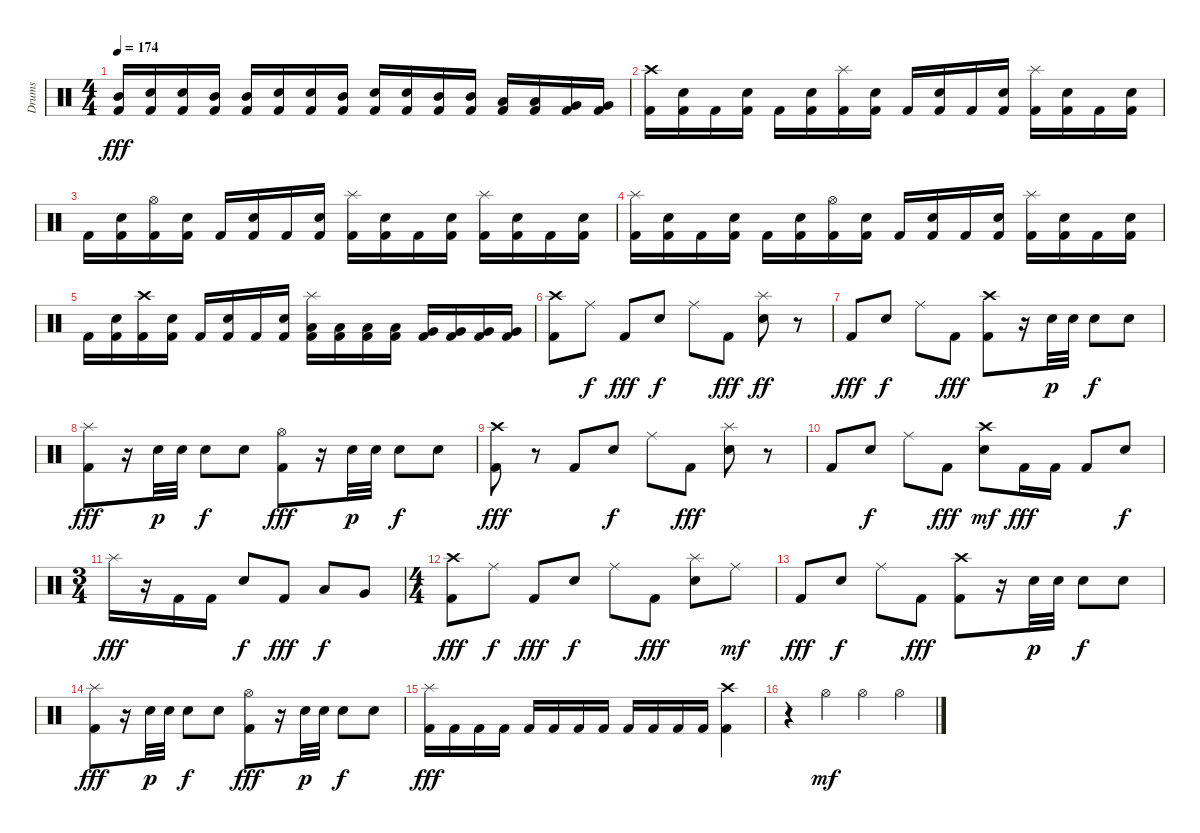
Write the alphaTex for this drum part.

\track ("Drums" "Drums") {instrument percussion}
\staff {score}
\articulation defaults
\ts (4 4)
\tempo 174
\clef neutral
\ks c
("Mid Tom (hit)" "Kick (hit) 2").16{dy fff} ("Snare (hit) 2" "Kick (hit) 2").16 ("Snare (hit) 2" "Kick (hit) 2").16 ("Mid Tom (hit)" "Kick (hit) 2").16 ("Mid Tom (hit)" "Kick (hit) 2").16 ("Snare (hit) 2" "Kick (hit) 2").16 ("Snare (hit) 2" "Kick (hit) 2").16 ("Mid Tom (hit)" "Kick (hit) 2").16 ("Snare (hit) 2" "Kick (hit) 2").16 ("Snare (hit) 2" "Kick (hit) 2").16 ("Mid Tom (hit)" "Kick (hit) 2").16 ("Mid Tom (hit)" "Kick (hit) 2").16 ("Low Tom (hit)" "Kick (hit) 2").16 ("Low Tom (hit)" "Kick (hit) 2").16 ("Very Low Tom (hit)" "Kick (hit) 2").16 ("Very Low Tom (hit)" "Kick (hit) 2").16 |
("Crash high (hit)" "Kick (hit) 2").16 ("Snare (hit) 2" "Kick (hit) 2").16 "Kick (hit) 2".16 ("Snare (hit) 2" "Kick (hit) 2").16 "Kick (hit) 2".16 ("Snare (hit) 2" "Kick (hit) 2").16 ("Splash (hit)" "Kick (hit) 2").16 ("Snare (hit) 2" "Kick (hit) 2").16 "Kick (hit) 2".16 ("Snare (hit) 2" "Kick (hit) 2").16 "Kick (hit) 2".16 ("Snare (hit) 2" "Kick (hit) 2").16 ("Splash (hit)" "Kick (hit) 2").16 ("Snare (hit) 2" "Kick (hit) 2").16 "Kick (hit) 2".16 ("Snare (hit) 2" "Kick (hit) 2").16 |
"Kick (hit) 2".16 ("Snare (hit) 2" "Kick (hit) 2").16 ("Hi-Hat (open)" "Kick (hit) 2").16 ("Snare (hit) 2" "Kick (hit) 2").16 "Kick (hit) 2".16 ("Snare (hit) 2" "Kick (hit) 2").16 "Kick (hit) 2".16 ("Snare (hit) 2" "Kick (hit) 2").16 ("Splash (hit)" "Kick (hit) 2").16 ("Snare (hit) 2" "Kick (hit) 2").16 "Kick (hit) 2".16 ("Snare (hit) 2" "Kick (hit) 2").16 ("Splash (hit)" "Kick (hit) 2").16 ("Snare (hit) 2" "Kick (hit) 2").16 "Kick (hit) 2".16 ("Snare (hit) 2" "Kick (hit) 2").16 |
("Splash (hit)" "Kick (hit) 2").16 ("Snare (hit) 2" "Kick (hit) 2").16 "Kick (hit) 2".16 ("Snare (hit) 2" "Kick (hit) 2").16 "Kick (hit) 2".16 ("Snare (hit) 2" "Kick (hit) 2").16 ("Hi-Hat (open)" "Kick (hit) 2").16 ("Snare (hit) 2" "Kick (hit) 2").16 "Kick (hit) 2".16 ("Snare (hit) 2" "Kick (hit) 2").16 "Kick (hit) 2".16 ("Snare (hit) 2" "Kick (hit) 2").16 ("Splash (hit)" "Kick (hit) 2").16 ("Snare (hit) 2" "Kick (hit) 2").16 "Kick (hit) 2".16 ("Snare (hit) 2" "Kick (hit) 2").16 |
"Kick (hit) 2".16 ("Snare (hit) 2" "Kick (hit) 2").16 ("Crash high (hit)" "Kick (hit) 2").16 ("Snare (hit) 2" "Kick (hit) 2").16 "Kick (hit) 2".16 ("Snare (hit) 2" "Kick (hit) 2").16 "Kick (hit) 2".16 ("Snare (hit) 2" "Kick (hit) 2").16 ("Splash (hit)" "Low Tom (hit)" "Kick (hit) 2").16 ("Low Tom (hit)" "Kick (hit) 2").16 ("Low Tom (hit)" "Kick (hit) 2").16 ("Low Tom (hit)" "Kick (hit) 2").16 ("Very Low Tom (hit)" "Kick (hit) 2").16 ("Very Low Tom (hit)" "Kick (hit) 2").16 ("Very Low Tom (hit)" "Kick (hit) 2").16 ("Very Low Tom (hit)" "Kick (hit) 2").16 |
("Crash high (hit)" "Kick (hit) 2").8 "Ride (middle)".8{dy f} "Kick (hit) 2".8{dy fff} "Snare (hit) 2".8{dy f} "Ride (middle)".8 "Kick (hit) 2".8{dy fff} ("Splash (hit)" "Snare (hit) 2").8{dy ff} r.8 |
"Kick (hit) 2".8{dy fff} "Snare (hit) 2".8{dy f} "Ride (middle)".8 "Kick (hit) 2".8{dy fff} ("Crash high (hit)" "Kick (hit) 2").8 r.16 "Snare (hit) 2".32{dy p} "Snare (hit) 2".32 "Snare (hit) 2".8{dy f} "Snare (hit) 2".8 |
("Splash (hit)" "Kick (hit) 2").8{dy fff} r.16 "Snare (hit) 2".32{dy p} "Snare (hit) 2".32 "Snare (hit) 2".8{dy f} "Snare (hit) 2".8 ("Hi-Hat (open)" "Kick (hit) 2").8{dy fff} r.16 "Snare (hit) 2".32{dy p} "Snare (hit) 2".32 "Snare (hit) 2".8{dy f} "Snare (hit) 2".8 |
("Crash high (hit)" "Kick (hit) 2").8{dy fff} r.8 "Kick (hit) 2".8 "Snare (hit) 2".8{dy f} "Ride (middle)".8 "Kick (hit) 2".8{dy fff} ("Splash (hit)" "Snare (hit) 2").8 r.8 |
"Kick (hit) 2".8 "Snare (hit) 2".8{dy f} "Ride (middle)".8 "Kick (hit) 2".8{dy fff} ("Crash high (hit)" "Snare (hit) 2").8{dy mf} "Kick (hit) 2".16{dy fff} "Kick (hit) 2".16 "Kick (hit) 2".8 "Snare (hit) 2".8{dy f} |
\ts (3 4)
"Splash (hit)".16{dy fff} r.16 "Kick (hit) 2".16 "Kick (hit) 2".16 "Snare (hit) 2".8{dy f} "Kick (hit) 2".8{dy fff} "Low Tom (hit)".8{dy f} "Very Low Tom (hit)".8 |
\ts (4 4)
("Crash high (hit)" "Kick (hit) 2").8{dy fff} "Ride (middle)".8{dy f} "Kick (hit) 2".8{dy fff} "Snare (hit) 2".8{dy f} "Ride (middle)".8 "Kick (hit) 2".8{dy fff} ("Splash (hit)" "Snare (hit) 2").8 "Ride (middle)".8{dy mf} |
"Kick (hit) 2".8{dy fff} "Snare (hit) 2".8{dy f} "Ride (middle)".8 "Kick (hit) 2".8{dy fff} ("Crash high (hit)" "Kick (hit) 2").8 r.16 "Snare (hit) 2".32{dy p} "Snare (hit) 2".32 "Snare (hit) 2".8{dy f} "Snare (hit) 2".8 |
("Splash (hit)" "Kick (hit) 2").8{dy fff} r.16 "Snare (hit) 2".32{dy p} "Snare (hit) 2".32 "Snare (hit) 2".8{dy f} "Snare (hit) 2".8 ("Hi-Hat (open)" "Kick (hit) 2").8{dy fff} r.16 "Snare (hit) 2".32{dy p} "Snare (hit) 2".32 "Snare (hit) 2".8{dy f} "Snare (hit) 2".8 |
("Splash (hit)" "Kick (hit) 2").16{dy fff} "Kick (hit) 2".16 "Kick (hit) 2".16 "Kick (hit) 2".16 "Kick (hit) 2".16 "Kick (hit) 2".16 "Kick (hit) 2".16 "Kick (hit) 2".16 "Kick (hit) 2".16 "Kick (hit) 2".16 "Kick (hit) 2".16 "Kick (hit) 2".16 ("Crash high (hit)" "Kick (hit) 2").4 |
r.4 "Hi-Hat (open)".4{dy mf} "Hi-Hat (open)".4 "Hi-Hat (open)".4
